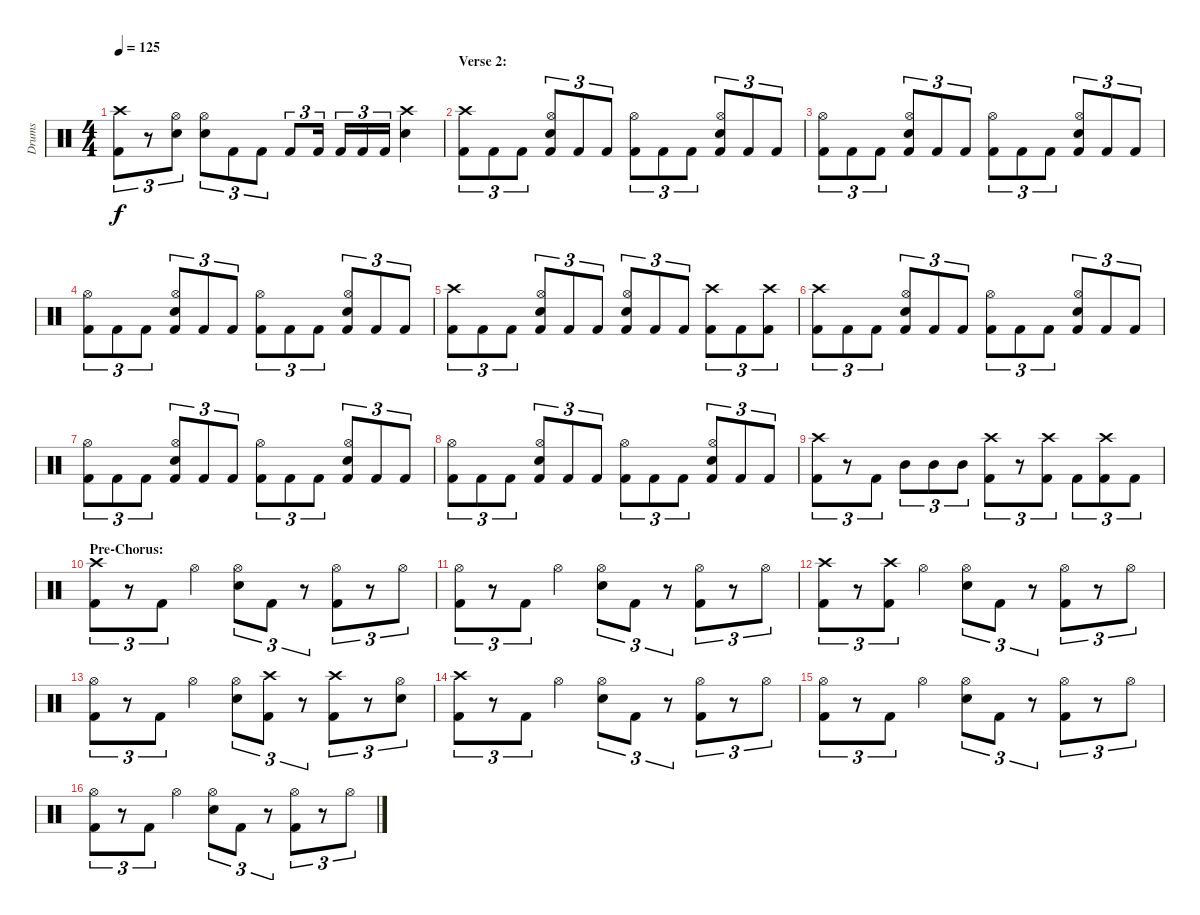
\track ("Drums" "Drums") {instrument percussion}
\staff {score}
\articulation defaults
\ts (4 4)
\tempo 125
\clef neutral
\ks c
("Crash high (hit)" "Kick (hit) 2").8{tu (3 2) dy f} r.8{tu (3 2)} ("Hi-Hat (open)" "Electric Snare (hit)").8{tu (3 2)} ("Hi-Hat (open)" "Electric Snare (hit)").8{tu (3 2)} "Kick (hit) 2".8{tu (3 2)} "Kick (hit) 2".8{tu (3 2)} "Kick (hit) 2".8{tu (3 2)} "Kick (hit) 2".16{tu (3 2)} "Kick (hit) 2".16{tu (3 2)} "Kick (hit) 2".16{tu (3 2)} "Kick (hit) 2".16{tu (3 2)} ("Crash high (hit)" "Electric Snare (hit)").4 |
\section ("" "Verse 2:")
("Crash high (hit)" "Kick (hit) 2").8{tu (3 2)} "Kick (hit) 2".8{tu (3 2)} "Kick (hit) 2".8{tu (3 2)} ("Hi-Hat (open)" "Electric Snare (hit)" "Kick (hit) 2").8{tu (3 2)} "Kick (hit) 2".8{tu (3 2)} "Kick (hit) 2".8{tu (3 2)} ("Hi-Hat (open)" "Kick (hit) 2").8{tu (3 2)} "Kick (hit) 2".8{tu (3 2)} "Kick (hit) 2".8{tu (3 2)} ("Hi-Hat (open)" "Electric Snare (hit)" "Kick (hit) 2").8{tu (3 2)} "Kick (hit) 2".8{tu (3 2)} "Kick (hit) 2".8{tu (3 2)} |
("Hi-Hat (open)" "Kick (hit) 2").8{tu (3 2)} "Kick (hit) 2".8{tu (3 2)} "Kick (hit) 2".8{tu (3 2)} ("Hi-Hat (open)" "Electric Snare (hit)" "Kick (hit) 2").8{tu (3 2)} "Kick (hit) 2".8{tu (3 2)} "Kick (hit) 2".8{tu (3 2)} ("Hi-Hat (open)" "Kick (hit) 2").8{tu (3 2)} "Kick (hit) 2".8{tu (3 2)} "Kick (hit) 2".8{tu (3 2)} ("Hi-Hat (open)" "Electric Snare (hit)" "Kick (hit) 2").8{tu (3 2)} "Kick (hit) 2".8{tu (3 2)} "Kick (hit) 2".8{tu (3 2)} |
("Hi-Hat (open)" "Kick (hit) 2").8{tu (3 2)} "Kick (hit) 2".8{tu (3 2)} "Kick (hit) 2".8{tu (3 2)} ("Hi-Hat (open)" "Electric Snare (hit)" "Kick (hit) 2").8{tu (3 2)} "Kick (hit) 2".8{tu (3 2)} "Kick (hit) 2".8{tu (3 2)} ("Hi-Hat (open)" "Kick (hit) 2").8{tu (3 2)} "Kick (hit) 2".8{tu (3 2)} "Kick (hit) 2".8{tu (3 2)} ("Hi-Hat (open)" "Electric Snare (hit)" "Kick (hit) 2").8{tu (3 2)} "Kick (hit) 2".8{tu (3 2)} "Kick (hit) 2".8{tu (3 2)} |
("Crash high (hit)" "Kick (hit) 2").8{tu (3 2)} "Kick (hit) 2".8{tu (3 2)} "Kick (hit) 2".8{tu (3 2)} ("Hi-Hat (open)" "Electric Snare (hit)" "Kick (hit) 2").8{tu (3 2)} "Kick (hit) 2".8{tu (3 2)} "Kick (hit) 2".8{tu (3 2)} ("Hi-Hat (open)" "Electric Snare (hit)" "Kick (hit) 2").8{tu (3 2)} "Kick (hit) 2".8{tu (3 2)} "Kick (hit) 2".8{tu (3 2)} ("Crash high (hit)" "Kick (hit) 2").8{tu (3 2)} "Kick (hit) 2".8{tu (3 2)} ("Crash high (hit)" "Kick (hit) 2").8{tu (3 2)} |
("Crash high (hit)" "Kick (hit) 2").8{tu (3 2)} "Kick (hit) 2".8{tu (3 2)} "Kick (hit) 2".8{tu (3 2)} ("Hi-Hat (open)" "Electric Snare (hit)" "Kick (hit) 2").8{tu (3 2)} "Kick (hit) 2".8{tu (3 2)} "Kick (hit) 2".8{tu (3 2)} ("Hi-Hat (open)" "Kick (hit) 2").8{tu (3 2)} "Kick (hit) 2".8{tu (3 2)} "Kick (hit) 2".8{tu (3 2)} ("Hi-Hat (open)" "Electric Snare (hit)" "Kick (hit) 2").8{tu (3 2)} "Kick (hit) 2".8{tu (3 2)} "Kick (hit) 2".8{tu (3 2)} |
("Hi-Hat (open)" "Kick (hit) 2").8{tu (3 2)} "Kick (hit) 2".8{tu (3 2)} "Kick (hit) 2".8{tu (3 2)} ("Hi-Hat (open)" "Electric Snare (hit)" "Kick (hit) 2").8{tu (3 2)} "Kick (hit) 2".8{tu (3 2)} "Kick (hit) 2".8{tu (3 2)} ("Hi-Hat (open)" "Kick (hit) 2").8{tu (3 2)} "Kick (hit) 2".8{tu (3 2)} "Kick (hit) 2".8{tu (3 2)} ("Hi-Hat (open)" "Electric Snare (hit)" "Kick (hit) 2").8{tu (3 2)} "Kick (hit) 2".8{tu (3 2)} "Kick (hit) 2".8{tu (3 2)} |
("Hi-Hat (open)" "Kick (hit) 2").8{tu (3 2)} "Kick (hit) 2".8{tu (3 2)} "Kick (hit) 2".8{tu (3 2)} ("Hi-Hat (open)" "Electric Snare (hit)" "Kick (hit) 2").8{tu (3 2)} "Kick (hit) 2".8{tu (3 2)} "Kick (hit) 2".8{tu (3 2)} ("Hi-Hat (open)" "Kick (hit) 2").8{tu (3 2)} "Kick (hit) 2".8{tu (3 2)} "Kick (hit) 2".8{tu (3 2)} ("Hi-Hat (open)" "Electric Snare (hit)" "Kick (hit) 2").8{tu (3 2)} "Kick (hit) 2".8{tu (3 2)} "Kick (hit) 2".8{tu (3 2)} |
("Crash high (hit)" "Kick (hit) 2").8{tu (3 2)} r.8{tu (3 2)} "Kick (hit) 2".8{tu (3 2)} "Mid Tom (hit)".8{tu (3 2)} "Mid Tom (hit)".8{tu (3 2)} "Mid Tom (hit)".8{tu (3 2)} ("Crash high (hit)" "Kick (hit) 2").8{tu (3 2)} r.8{tu (3 2)} ("Crash high (hit)" "Kick (hit) 2").8{tu (3 2)} "Kick (hit) 2".8{tu (3 2)} ("Crash high (hit)" "Kick (hit) 2").8{tu (3 2)} "Kick (hit) 2".8{tu (3 2)} |
\section ("" "Pre-Chorus:")
("Crash high (hit)" "Kick (hit) 2").8{tu (3 2)} r.8{tu (3 2)} "Kick (hit) 2".8{tu (3 2)} "Hi-Hat (open)".4 ("Hi-Hat (open)" "Electric Snare (hit)").8{tu (3 2)} "Kick (hit) 2".8{tu (3 2)} r.8{tu (3 2)} ("Hi-Hat (open)" "Kick (hit) 2").8{tu (3 2)} r.8{tu (3 2)} "Hi-Hat (open)".8{tu (3 2)} |
("Hi-Hat (open)" "Kick (hit) 2").8{tu (3 2)} r.8{tu (3 2)} "Kick (hit) 2".8{tu (3 2)} "Hi-Hat (open)".4 ("Hi-Hat (open)" "Electric Snare (hit)").8{tu (3 2)} "Kick (hit) 2".8{tu (3 2)} r.8{tu (3 2)} ("Hi-Hat (open)" "Kick (hit) 2").8{tu (3 2)} r.8{tu (3 2)} "Hi-Hat (open)".8{tu (3 2)} |
("Crash high (hit)" "Kick (hit) 2").8{tu (3 2)} r.8{tu (3 2)} ("Crash high (hit)" "Kick (hit) 2").8{tu (3 2)} "Hi-Hat (open)".4 ("Hi-Hat (open)" "Electric Snare (hit)").8{tu (3 2)} "Kick (hit) 2".8{tu (3 2)} r.8{tu (3 2)} ("Hi-Hat (open)" "Kick (hit) 2").8{tu (3 2)} r.8{tu (3 2)} "Hi-Hat (open)".8{tu (3 2)} |
("Hi-Hat (open)" "Kick (hit) 2").8{tu (3 2)} r.8{tu (3 2)} "Kick (hit) 2".8{tu (3 2)} "Hi-Hat (open)".4 ("Hi-Hat (open)" "Electric Snare (hit)").8{tu (3 2)} ("Crash high (hit)" "Kick (hit) 2").8{tu (3 2)} r.8{tu (3 2)} ("Crash high (hit)" "Kick (hit) 2").8{tu (3 2)} r.8{tu (3 2)} ("Hi-Hat (open)" "Electric Snare (hit)").8{tu (3 2)} |
("Crash high (hit)" "Kick (hit) 2").8{tu (3 2)} r.8{tu (3 2)} "Kick (hit) 2".8{tu (3 2)} "Hi-Hat (open)".4 ("Hi-Hat (open)" "Electric Snare (hit)").8{tu (3 2)} "Kick (hit) 2".8{tu (3 2)} r.8{tu (3 2)} ("Hi-Hat (open)" "Kick (hit) 2").8{tu (3 2)} r.8{tu (3 2)} "Hi-Hat (open)".8{tu (3 2)} |
("Hi-Hat (open)" "Kick (hit) 2").8{tu (3 2)} r.8{tu (3 2)} "Kick (hit) 2".8{tu (3 2)} "Hi-Hat (open)".4 ("Hi-Hat (open)" "Electric Snare (hit)").8{tu (3 2)} "Kick (hit) 2".8{tu (3 2)} r.8{tu (3 2)} ("Hi-Hat (open)" "Kick (hit) 2").8{tu (3 2)} r.8{tu (3 2)} "Hi-Hat (open)".8{tu (3 2)} |
("Hi-Hat (open)" "Kick (hit) 2").8{tu (3 2)} r.8{tu (3 2)} "Kick (hit) 2".8{tu (3 2)} "Hi-Hat (open)".4 ("Hi-Hat (open)" "Electric Snare (hit)").8{tu (3 2)} "Kick (hit) 2".8{tu (3 2)} r.8{tu (3 2)} ("Hi-Hat (open)" "Kick (hit) 2").8{tu (3 2)} r.8{tu (3 2)} "Hi-Hat (open)".8{tu (3 2)}
